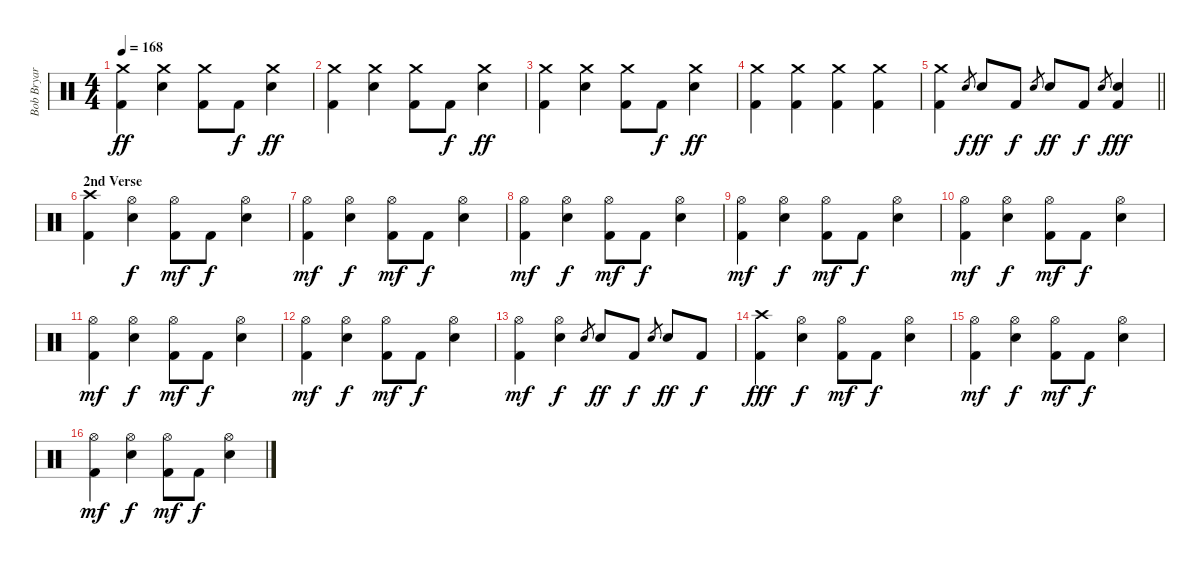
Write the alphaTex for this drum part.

\track ("Bob Bryar" "Bob Bryar") {instrument percussion}
\staff {score}
\articulation defaults
\ts (4 4)
\tempo 168
\clef neutral
\ks c
("Crash medium (hit)" "Kick (hit) 2").4{dy ff} ("Crash medium (hit)" "Electric Snare (hit)").4 ("Crash medium (hit)" "Kick (hit) 2").8 "Kick (hit) 2".8{dy f} ("Crash medium (hit)" "Electric Snare (hit)").4{dy ff} |
("Crash medium (hit)" "Kick (hit) 2").4 ("Crash medium (hit)" "Electric Snare (hit)").4 ("Crash medium (hit)" "Kick (hit) 2").8 "Kick (hit) 2".8{dy f} ("Crash medium (hit)" "Electric Snare (hit)").4{dy ff} |
("Crash medium (hit)" "Kick (hit) 2").4 ("Crash medium (hit)" "Electric Snare (hit)").4 ("Crash medium (hit)" "Kick (hit) 2").8 "Kick (hit) 2".8{dy f} ("Crash medium (hit)" "Electric Snare (hit)").4{dy ff} |
("Crash medium (hit)" "Kick (hit) 2").4 ("Crash medium (hit)" "Kick (hit) 2").4 ("Crash medium (hit)" "Kick (hit) 2").4 ("Crash medium (hit)" "Kick (hit) 2").4 |
\barLineRight lightlight
("Crash medium (hit)" "Kick (hit) 2").4 "Electric Snare (hit)".8{gr dy f} "Electric Snare (hit)".8{dy ff} "Kick (hit) 2".8{dy f} "Electric Snare (hit)".8{gr} "Electric Snare (hit)".8{dy ff} "Kick (hit) 2".8{dy f} "Electric Snare (hit)".8{gr} ("Electric Snare (hit)" "Kick (hit) 2").4{dy fff} |
\section ("" "2nd Verse")
("Crash high (hit)" "Kick (hit) 2").4 ("Hi-Hat (open)" "Electric Snare (hit)").4{dy f} ("Hi-Hat (open)" "Kick (hit) 2").8{dy mf} "Kick (hit) 2".8{dy f} ("Hi-Hat (open)" "Electric Snare (hit)").4 |
("Hi-Hat (open)" "Kick (hit) 2").4{dy mf} ("Hi-Hat (open)" "Electric Snare (hit)").4{dy f} ("Hi-Hat (open)" "Kick (hit) 2").8{dy mf} "Kick (hit) 2".8{dy f} ("Hi-Hat (open)" "Electric Snare (hit)").4 |
("Hi-Hat (open)" "Kick (hit) 2").4{dy mf} ("Hi-Hat (open)" "Electric Snare (hit)").4{dy f} ("Hi-Hat (open)" "Kick (hit) 2").8{dy mf} "Kick (hit) 2".8{dy f} ("Hi-Hat (open)" "Electric Snare (hit)").4 |
("Hi-Hat (open)" "Kick (hit) 2").4{dy mf} ("Hi-Hat (open)" "Electric Snare (hit)").4{dy f} ("Hi-Hat (open)" "Kick (hit) 2").8{dy mf} "Kick (hit) 2".8{dy f} ("Hi-Hat (open)" "Electric Snare (hit)").4 |
("Hi-Hat (open)" "Kick (hit) 2").4{dy mf} ("Hi-Hat (open)" "Electric Snare (hit)").4{dy f} ("Hi-Hat (open)" "Kick (hit) 2").8{dy mf} "Kick (hit) 2".8{dy f} ("Hi-Hat (open)" "Electric Snare (hit)").4 |
("Hi-Hat (open)" "Kick (hit) 2").4{dy mf} ("Hi-Hat (open)" "Electric Snare (hit)").4{dy f} ("Hi-Hat (open)" "Kick (hit) 2").8{dy mf} "Kick (hit) 2".8{dy f} ("Hi-Hat (open)" "Electric Snare (hit)").4 |
("Hi-Hat (open)" "Kick (hit) 2").4{dy mf} ("Hi-Hat (open)" "Electric Snare (hit)").4{dy f} ("Hi-Hat (open)" "Kick (hit) 2").8{dy mf} "Kick (hit) 2".8{dy f} ("Hi-Hat (open)" "Electric Snare (hit)").4 |
("Hi-Hat (open)" "Kick (hit) 2").4{dy mf} ("Hi-Hat (open)" "Electric Snare (hit)").4{dy f} "Electric Snare (hit)".8{gr} "Electric Snare (hit)".8{dy ff} "Kick (hit) 2".8{dy f} "Electric Snare (hit)".8{gr} "Electric Snare (hit)".8{dy ff} "Kick (hit) 2".8{dy f} |
("Crash high (hit)" "Kick (hit) 2").4{dy fff} ("Hi-Hat (open)" "Electric Snare (hit)").4{dy f} ("Hi-Hat (open)" "Kick (hit) 2").8{dy mf} "Kick (hit) 2".8{dy f} ("Hi-Hat (open)" "Electric Snare (hit)").4 |
("Hi-Hat (open)" "Kick (hit) 2").4{dy mf} ("Hi-Hat (open)" "Electric Snare (hit)").4{dy f} ("Hi-Hat (open)" "Kick (hit) 2").8{dy mf} "Kick (hit) 2".8{dy f} ("Hi-Hat (open)" "Electric Snare (hit)").4 |
("Hi-Hat (open)" "Kick (hit) 2").4{dy mf} ("Hi-Hat (open)" "Electric Snare (hit)").4{dy f} ("Hi-Hat (open)" "Kick (hit) 2").8{dy mf} "Kick (hit) 2".8{dy f} ("Hi-Hat (open)" "Electric Snare (hit)").4
